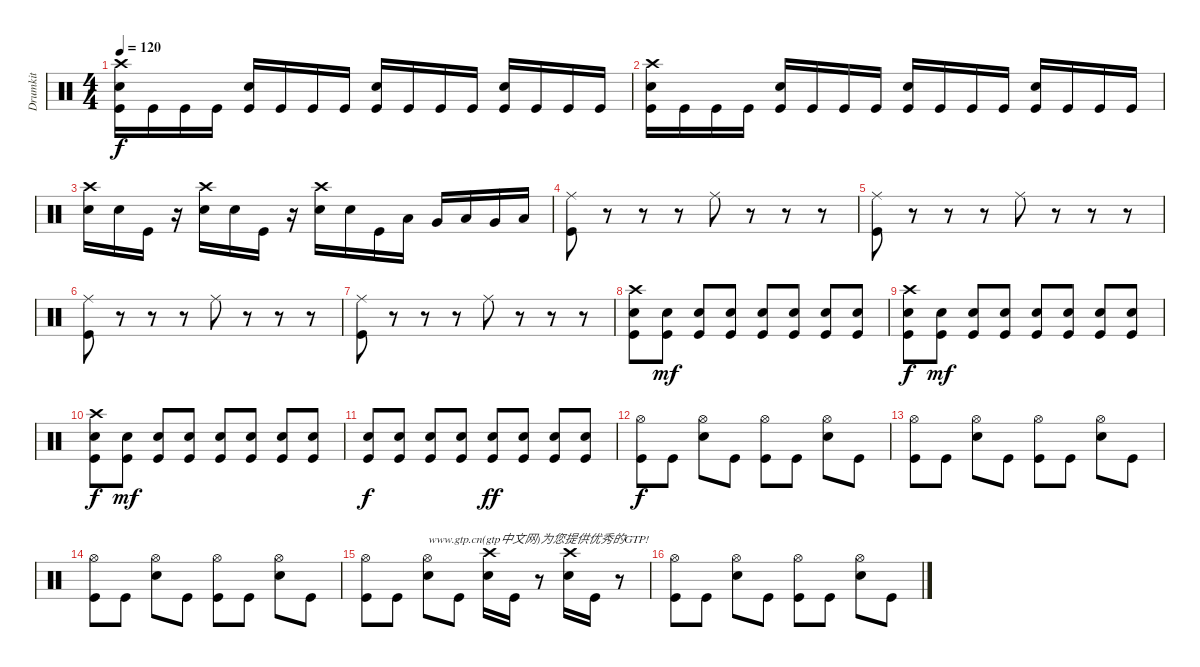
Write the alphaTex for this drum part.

\track ("Drumkit" "Drumkit") {instrument percussion}
\staff {score}
\articulation defaults
\ts (4 4)
\tempo 120
\clef neutral
\ks c
("Kick (hit)" "Snare (hit) 2" "Crash high (hit)").16{dy f} "Kick (hit)".16 "Kick (hit)".16 "Kick (hit)".16 ("Kick (hit)" "Snare (hit) 2").16 "Kick (hit)".16 "Kick (hit)".16 "Kick (hit)".16 ("Kick (hit)" "Snare (hit) 2").16 "Kick (hit)".16 "Kick (hit)".16 "Kick (hit)".16 ("Kick (hit)" "Snare (hit) 2").16 "Kick (hit)".16 "Kick (hit)".16 "Kick (hit)".16 |
("Kick (hit)" "Snare (hit) 2" "Crash high (hit)").16 "Kick (hit)".16 "Kick (hit)".16 "Kick (hit)".16 ("Kick (hit)" "Snare (hit) 2").16 "Kick (hit)".16 "Kick (hit)".16 "Kick (hit)".16 ("Kick (hit)" "Snare (hit) 2").16 "Kick (hit)".16 "Kick (hit)".16 "Kick (hit)".16 ("Kick (hit)" "Snare (hit) 2").16 "Kick (hit)".16 "Kick (hit)".16 "Kick (hit)".16 |
("Snare (hit) 2" "Crash high (hit)").16 "Snare (hit) 2".16 "Kick (hit)".16 r.16 ("Snare (hit) 2" "Crash high (hit)").16 "Snare (hit) 2".16 "Kick (hit)".16 r.16 ("Snare (hit) 2" "Crash high (hit)").16 "Snare (hit) 2".16 "Kick (hit)".16 "Low Tom (hit)".16 "Very Low Tom (hit)".16 "Low Floor Tom (hit)".16 "Very Low Tom (hit)".16 "Low Tom (hit)".16 |
("Kick (hit)" "Ride (middle)").8 r.8 r.8 r.8 "Ride (middle)".8 r.8 r.8 r.8 |
("Kick (hit)" "Ride (middle)").8 r.8 r.8 r.8 "Ride (middle)".8 r.8 r.8 r.8 |
("Kick (hit)" "Ride (middle)").8 r.8 r.8 r.8 "Ride (middle)".8 r.8 r.8 r.8 |
("Kick (hit)" "Ride (middle)").8 r.8 r.8 r.8 "Ride (middle)".8 r.8 r.8 r.8 |
("Kick (hit)" "Snare (hit) 2" "Crash high (hit)").8 ("Kick (hit)" "Snare (hit) 2").8{dy mf} ("Kick (hit)" "Snare (hit) 2").8 ("Kick (hit)" "Snare (hit) 2").8 ("Kick (hit)" "Snare (hit) 2").8 ("Kick (hit)" "Snare (hit) 2").8 ("Kick (hit)" "Snare (hit) 2").8 ("Kick (hit)" "Snare (hit) 2").8 |
("Kick (hit)" "Snare (hit) 2" "Crash high (hit)").8{dy f} ("Kick (hit)" "Snare (hit) 2").8{dy mf} ("Kick (hit)" "Snare (hit) 2").8 ("Kick (hit)" "Snare (hit) 2").8 ("Kick (hit)" "Snare (hit) 2").8 ("Kick (hit)" "Snare (hit) 2").8 ("Kick (hit)" "Snare (hit) 2").8 ("Kick (hit)" "Snare (hit) 2").8 |
("Kick (hit)" "Snare (hit) 2" "Crash high (hit)").8{dy f} ("Kick (hit)" "Snare (hit) 2").8{dy mf} ("Kick (hit)" "Snare (hit) 2").8 ("Kick (hit)" "Snare (hit) 2").8 ("Kick (hit)" "Snare (hit) 2").8 ("Kick (hit)" "Snare (hit) 2").8 ("Kick (hit)" "Snare (hit) 2").8 ("Kick (hit)" "Snare (hit) 2").8 |
("Kick (hit)" "Snare (hit) 2").8{dy f} ("Kick (hit)" "Snare (hit) 2").8 ("Kick (hit)" "Snare (hit) 2").8 ("Kick (hit)" "Snare (hit) 2").8 ("Kick (hit)" "Snare (hit) 2").8{dy ff} ("Kick (hit)" "Snare (hit) 2").8 ("Kick (hit)" "Snare (hit) 2").8 ("Kick (hit)" "Snare (hit) 2").8 |
("Kick (hit)" "Hi-Hat (open)").8{dy f} "Kick (hit)".8 ("Snare (hit) 2" "Hi-Hat (open)").8 "Kick (hit)".8 ("Kick (hit)" "Hi-Hat (open)").8 "Kick (hit)".8 ("Snare (hit) 2" "Hi-Hat (open)").8 "Kick (hit)".8 |
("Kick (hit)" "Hi-Hat (open)").8 "Kick (hit)".8 ("Snare (hit) 2" "Hi-Hat (open)").8 "Kick (hit)".8 ("Kick (hit)" "Hi-Hat (open)").8 "Kick (hit)".8 ("Snare (hit) 2" "Hi-Hat (open)").8 "Kick (hit)".8 |
("Kick (hit)" "Hi-Hat (open)").8 "Kick (hit)".8 ("Snare (hit) 2" "Hi-Hat (open)").8 "Kick (hit)".8 ("Kick (hit)" "Hi-Hat (open)").8 "Kick (hit)".8 ("Snare (hit) 2" "Hi-Hat (open)").8 "Kick (hit)".8 |
("Kick (hit)" "Hi-Hat (open)").8 "Kick (hit)".8 ("Snare (hit) 2" "Hi-Hat (open)").8{txt "www.gtp.cn(gtp中文网)为您提供优秀的GTP!"} "Kick (hit)".8 ("Crash high (hit)" "Snare (hit) 2").16 "Kick (hit)".16 r.8 ("Crash high (hit)" "Snare (hit) 2").16 "Kick (hit)".16 r.8 |
("Kick (hit)" "Hi-Hat (open)").8 "Kick (hit)".8 ("Snare (hit) 2" "Hi-Hat (open)").8 "Kick (hit)".8 ("Kick (hit)" "Hi-Hat (open)").8 "Kick (hit)".8 ("Snare (hit) 2" "Hi-Hat (open)").8 "Kick (hit)".8
